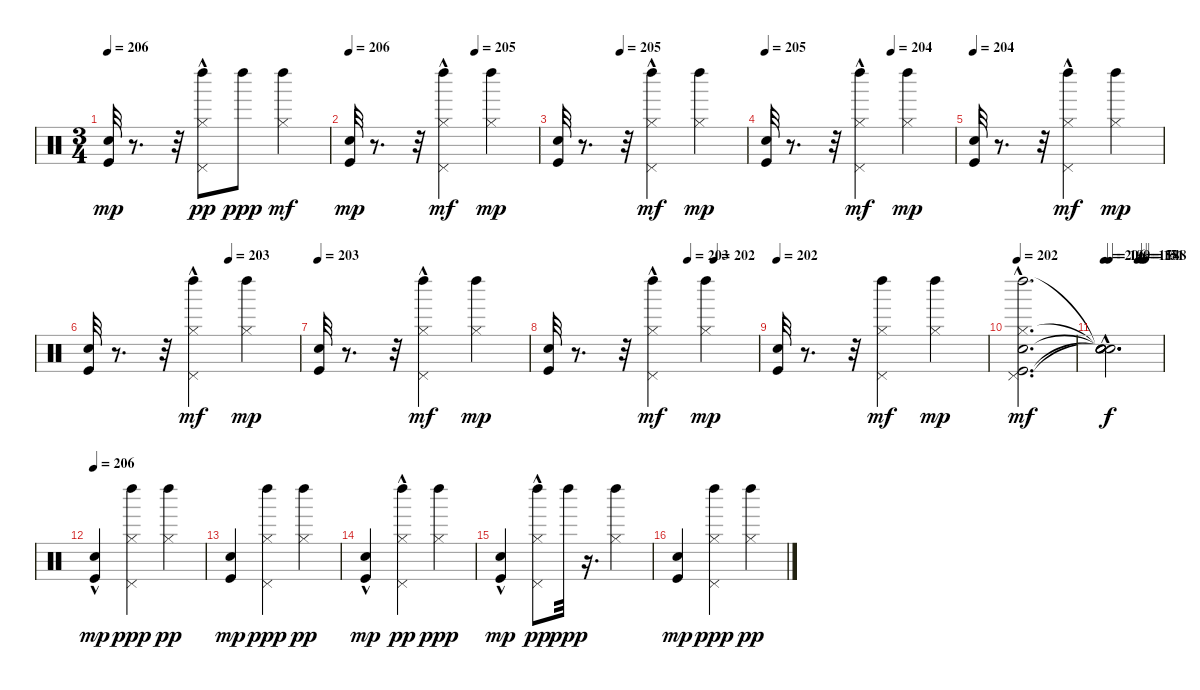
\track "" {instrument percussion}
\staff {score}
\articulation defaults
\ts (3 4)
\tempo 206
\clef neutral
\ks c
("Kick (hit)" "Snare (hit)").32{dy mp} r.8{d} r.32 ("Pedal Hi-Hat (hit)"{hac} "Hi-Hat (closed)" "Left Maraca (hit)").8{dy pp} "Left Maraca (hit)".8{dy ppp} ("Left Maraca (hit)" "Hi-Hat (closed)").4{dy mf} |
\tempo 206
\tempo (205 0.6666666666666666)
("Kick (hit)" "Snare (hit)").32{dy mp} r.8{d} r.32 ("Pedal Hi-Hat (hit)"{hac} "Left Maraca (hit)" "Hi-Hat (closed)").4{dy mf} ("Left Maraca (hit)" "Hi-Hat (closed)").4{dy mp} |
\tempo (205 0.3333333333333333)
("Kick (hit)" "Snare (hit)").32 r.8{d} r.32 ("Pedal Hi-Hat (hit)"{hac} "Left Maraca (hit)" "Hi-Hat (closed)").4{dy mf} ("Left Maraca (hit)" "Hi-Hat (closed)").4{dy mp} |
\tempo 205
\tempo (204 0.6666666666666666)
("Kick (hit)" "Snare (hit)").32 r.8{d} r.32 ("Pedal Hi-Hat (hit)"{hac} "Left Maraca (hit)" "Hi-Hat (closed)").4{dy mf} ("Left Maraca (hit)" "Hi-Hat (closed)").4{dy mp} |
\tempo 204
("Kick (hit)" "Snare (hit)").32 r.8{d} r.32 ("Pedal Hi-Hat (hit)"{hac} "Left Maraca (hit)" "Hi-Hat (closed)").4{dy mf} ("Left Maraca (hit)" "Hi-Hat (closed)").4{dy mp} |
\tempo (203 0.6666666666666666)
("Kick (hit)" "Snare (hit)").32 r.8{d} r.32 ("Pedal Hi-Hat (hit)"{hac} "Left Maraca (hit)" "Hi-Hat (closed)").4{dy mf} ("Left Maraca (hit)" "Hi-Hat (closed)").4{dy mp} |
\tempo 203
("Kick (hit)" "Snare (hit)").32 r.8{d} r.32 ("Pedal Hi-Hat (hit)"{hac} "Left Maraca (hit)" "Hi-Hat (closed)").4{dy mf} ("Left Maraca (hit)" "Hi-Hat (closed)").4{dy mp} |
\tempo (203 0.6666666666666666)
\tempo (202 0.7916666666666666)
("Kick (hit)" "Snare (hit)").32 r.8{d} r.32 ("Pedal Hi-Hat (hit)"{hac} "Left Maraca (hit)" "Hi-Hat (closed)").4{dy mf} ("Left Maraca (hit)" "Hi-Hat (closed)").4{dy mp} |
\tempo 202
("Kick (hit)" "Snare (hit)").32 r.8{d} r.32 ("Pedal Hi-Hat (hit)" "Left Maraca (hit)" "Hi-Hat (closed)").4{dy mf} ("Left Maraca (hit)" "Hi-Hat (closed)").4{dy mp} |
\tempo 202
("Kick (hit)"{hac} "Snare (hit)"{hac} "Pedal Hi-Hat (hit)"{hac} "Left Maraca (hit)"{hac} "Hi-Hat (closed)"{hac}).2{d dy mf} |
\tempo 206
\tempo (199 0.08333333333333333)
\tempo (158 0.5833333333333334)
\tempo (151 0.6666666666666666)
\tempo (148 0.7083333333333334)
("Snare (hit)"{hac t} "Snare (hit)"{hac t} "Snare (hit)"{t} "Snare (hit)"{t} "Snare (hit)"{t}).2{d dy f} |
\tempo 206
("Kick (hit)"{hac} "Snare (hit)").4{dy mp} ("Pedal Hi-Hat (hit)" "Hi-Hat (closed)" "Left Maraca (hit)").4{dy ppp} ("Hi-Hat (closed)" "Left Maraca (hit)").4{dy pp} |
("Kick (hit)" "Snare (hit)").4{dy mp} ("Pedal Hi-Hat (hit)" "Hi-Hat (closed)" "Left Maraca (hit)").4{dy ppp} ("Hi-Hat (closed)" "Left Maraca (hit)").4{dy pp} |
("Kick (hit)"{hac} "Snare (hit)"{hac}).4{dy mp} ("Pedal Hi-Hat (hit)"{hac} "Hi-Hat (closed)" "Left Maraca (hit)").4{dy pp} ("Hi-Hat (closed)" "Left Maraca (hit)").4{dy ppp} |
("Kick (hit)" "Snare (hit)"{hac}).4{dy mp} ("Pedal Hi-Hat (hit)"{hac} "Hi-Hat (closed)" "Left Maraca (hit)").8{dy pp} "Left Maraca (hit)".32{dy ppp} r.16{d} ("Hi-Hat (closed)" "Left Maraca (hit)").4 |
("Kick (hit)" "Snare (hit)").4{dy mp} ("Pedal Hi-Hat (hit)" "Hi-Hat (closed)" "Left Maraca (hit)").4{dy ppp} ("Hi-Hat (closed)" "Left Maraca (hit)").4{dy pp}
